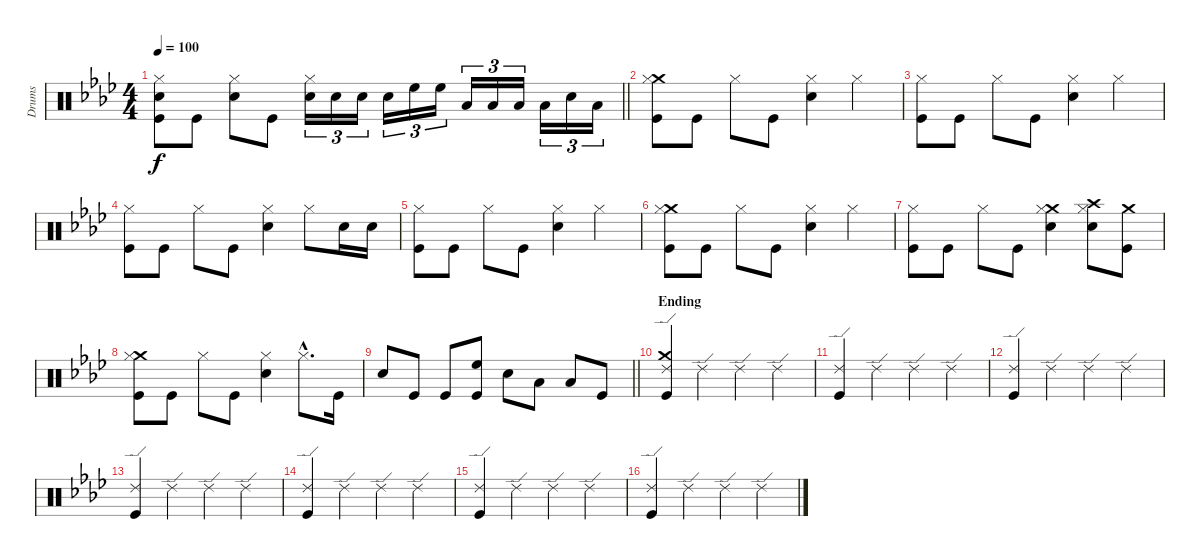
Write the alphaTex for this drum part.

\track ("Drums" "Drums") {instrument percussion}
\staff {score}
\articulation defaults
\ts (4 4)
\tempo 100
\clef neutral
\barLineRight lightlight
\ks ab
("Hi-Hat (closed)" "Electric Snare (hit)" "Kick (hit)").8{dy f} "Kick (hit)".8 ("Hi-Hat (closed)" "Electric Snare (hit)").8 "Kick (hit)".8 ("Hi-Hat (closed)" "Electric Snare (hit)").16{tu (3 2)} "Electric Snare (hit)".16{tu (3 2)} "Electric Snare (hit)".16{tu (3 2)} "Electric Snare (hit)".16{tu (3 2)} "High Floor Tom (hit)".16{tu (3 2)} "High Floor Tom (hit)".16{tu (3 2)} "Low Tom (hit)".16{tu (3 2)} "Low Tom (hit)".16{tu (3 2)} "Low Tom (hit)".16{tu (3 2)} "Low Floor Tom (hit)".16{tu (3 2)} "Electric Snare (hit)".16{tu (3 2)} "Low Tom (hit)".16{tu (3 2)} |
("Crash medium (hit)" "Hi-Hat (closed)" "Kick (hit)").8 "Kick (hit)".8 "Hi-Hat (closed)".8 "Kick (hit)".8 ("Hi-Hat (closed)" "Electric Snare (hit)").4 "Hi-Hat (closed)".4 |
("Hi-Hat (closed)" "Kick (hit)").8 "Kick (hit)".8 "Hi-Hat (closed)".8 "Kick (hit)".8 ("Hi-Hat (closed)" "Electric Snare (hit)").4 "Hi-Hat (closed)".4 |
("Hi-Hat (closed)" "Kick (hit)").8 "Kick (hit)".8 "Hi-Hat (closed)".8 "Kick (hit)".8 ("Hi-Hat (closed)" "Electric Snare (hit)").4 "Hi-Hat (closed)".8 "Electric Snare (hit)".16 "Electric Snare (hit)".16 |
("Hi-Hat (closed)" "Kick (hit)").8 "Kick (hit)".8 "Hi-Hat (closed)".8 "Kick (hit)".8 ("Hi-Hat (closed)" "Electric Snare (hit)").4 "Hi-Hat (closed)".4 |
("Crash medium (hit)" "Hi-Hat (closed)" "Kick (hit)").8 "Kick (hit)".8 "Hi-Hat (closed)".8 "Kick (hit)".8 ("Hi-Hat (closed)" "Electric Snare (hit)").4 "Hi-Hat (closed)".4 |
("Hi-Hat (closed)" "Kick (hit)").8 "Kick (hit)".8 "Hi-Hat (closed)".8 "Kick (hit)".8 ("Crash medium (hit)" "Hi-Hat (closed)" "Electric Snare (hit)").4 ("Crash high (hit)" "Hi-Hat (closed)" "Electric Snare (hit)").8 ("Crash medium (hit)" "Kick (hit)").8 |
("Crash medium (hit)" "Hi-Hat (closed)" "Kick (hit)").8 "Kick (hit)".8 "Hi-Hat (closed)".8 "Kick (hit)".8 ("Hi-Hat (closed)" "Electric Snare (hit)").4 "Hi-Hat (closed)"{hac}.8{d} "Kick (hit)".16 |
\barLineRight lightlight "Electric Snare (hit)".8 "Kick (hit)".8 "Kick (hit)".8
("High Floor Tom (hit)" "Kick (hit)").8 "Electric Snare (hit)".8 "Low Tom (hit)".8 "Low Floor Tom (hit)".8 "Kick (hit)".8 |
\section ("" "Ending")
("Ride (edge) 2" "Crash medium (hit)" "Kick (hit)").4 "Ride (edge) 2".4 "Ride (edge) 2".4 "Ride (edge) 2".4 |
("Ride (edge) 2" "Kick (hit)").4 "Ride (edge) 2".4 "Ride (edge) 2".4 "Ride (edge) 2".4 |
("Ride (edge) 2" "Kick (hit)").4 "Ride (edge) 2".4 "Ride (edge) 2".4 "Ride (edge) 2".4 |
("Ride (edge) 2" "Kick (hit)").4 "Ride (edge) 2".4 "Ride (edge) 2".4 "Ride (edge) 2".4 |
("Ride (edge) 2" "Kick (hit)").4 "Ride (edge) 2".4 "Ride (edge) 2".4 "Ride (edge) 2".4 |
("Ride (edge) 2" "Kick (hit)").4 "Ride (edge) 2".4 "Ride (edge) 2".4 "Ride (edge) 2".4 |
("Ride (edge) 2" "Kick (hit)").4 "Ride (edge) 2".4 "Ride (edge) 2".4 "Ride (edge) 2".4
